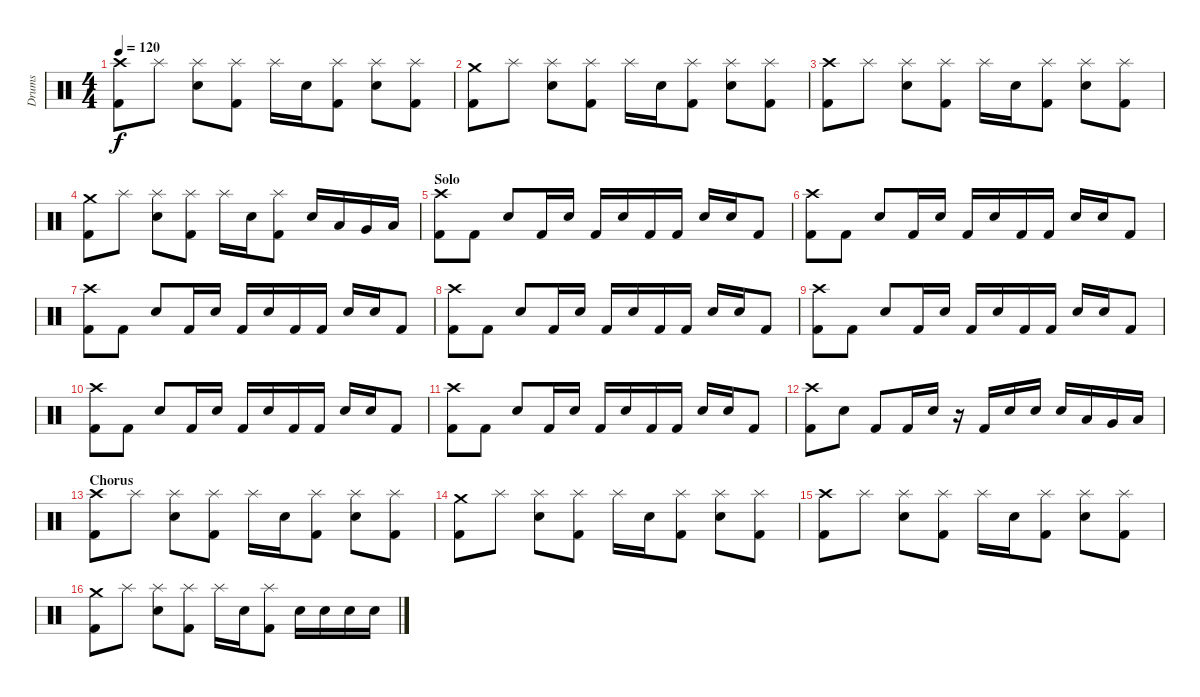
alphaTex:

\track ("Drums" "Drums") {instrument percussion}
\staff {score}
\articulation defaults
\ts (4 4)
\tempo 120
\clef neutral
\ks c
("Kick (hit) 2" "Crash high (hit)").8{dy f} "Splash (hit)".8 ("Electric Snare (hit)" "Splash (hit)").8 ("Kick (hit) 2" "Splash (hit)").8 "Splash (hit)".16 "Electric Snare (hit)".16 ("Kick (hit) 2" "Splash (hit)").8 ("Electric Snare (hit)" "Splash (hit)").8 ("Kick (hit) 2" "Splash (hit)").8 |
("Kick (hit) 2" "Crash medium (hit)").8 "Splash (hit)".8 ("Electric Snare (hit)" "Splash (hit)").8 ("Kick (hit) 2" "Splash (hit)").8 "Splash (hit)".16 "Electric Snare (hit)".16 ("Kick (hit) 2" "Splash (hit)").8 ("Electric Snare (hit)" "Splash (hit)").8 ("Kick (hit) 2" "Splash (hit)").8 |
("Kick (hit) 2" "Crash high (hit)").8 "Splash (hit)".8 ("Electric Snare (hit)" "Splash (hit)").8 ("Kick (hit) 2" "Splash (hit)").8 "Splash (hit)".16 "Electric Snare (hit)".16 ("Kick (hit) 2" "Splash (hit)").8 ("Electric Snare (hit)" "Splash (hit)").8 ("Kick (hit) 2" "Splash (hit)").8 |
("Kick (hit) 2" "Crash medium (hit)").8 "Splash (hit)".8 ("Electric Snare (hit)" "Splash (hit)").8 ("Kick (hit) 2" "Splash (hit)").8 "Splash (hit)".16 "Electric Snare (hit)".16 ("Kick (hit) 2" "Splash (hit)").8 "Electric Snare (hit)".16 "Low Tom (hit)".16 "Very Low Tom (hit)".16 "Low Floor Tom (hit)".16 |
\section ("" "Solo")
("Kick (hit) 2" "Crash high (hit)").8 "Kick (hit) 2".8 "Electric Snare (hit)".8 "Kick (hit) 2".16 "Electric Snare (hit)".16 "Kick (hit) 2".16 "Electric Snare (hit)".16 "Kick (hit) 2".16 "Kick (hit) 2".16 "Electric Snare (hit)".16 "Electric Snare (hit)".16 "Kick (hit) 2".8 |
("Kick (hit) 2" "Crash high (hit)").8 "Kick (hit) 2".8 "Electric Snare (hit)".8 "Kick (hit) 2".16 "Electric Snare (hit)".16 "Kick (hit) 2".16 "Electric Snare (hit)".16 "Kick (hit) 2".16 "Kick (hit) 2".16 "Electric Snare (hit)".16 "Electric Snare (hit)".16 "Kick (hit) 2".8 |
("Kick (hit) 2" "Crash high (hit)").8 "Kick (hit) 2".8 "Electric Snare (hit)".8 "Kick (hit) 2".16 "Electric Snare (hit)".16 "Kick (hit) 2".16 "Electric Snare (hit)".16 "Kick (hit) 2".16 "Kick (hit) 2".16 "Electric Snare (hit)".16 "Electric Snare (hit)".16 "Kick (hit) 2".8 |
("Kick (hit) 2" "Crash high (hit)").8 "Kick (hit) 2".8 "Electric Snare (hit)".8 "Kick (hit) 2".16 "Electric Snare (hit)".16 "Kick (hit) 2".16 "Electric Snare (hit)".16 "Kick (hit) 2".16 "Kick (hit) 2".16 "Electric Snare (hit)".16 "Electric Snare (hit)".16 "Kick (hit) 2".8 |
("Kick (hit) 2" "Crash high (hit)").8 "Kick (hit) 2".8 "Electric Snare (hit)".8 "Kick (hit) 2".16 "Electric Snare (hit)".16 "Kick (hit) 2".16 "Electric Snare (hit)".16 "Kick (hit) 2".16 "Kick (hit) 2".16 "Electric Snare (hit)".16 "Electric Snare (hit)".16 "Kick (hit) 2".8 |
("Kick (hit) 2" "Crash high (hit)").8 "Kick (hit) 2".8 "Electric Snare (hit)".8 "Kick (hit) 2".16 "Electric Snare (hit)".16 "Kick (hit) 2".16 "Electric Snare (hit)".16 "Kick (hit) 2".16 "Kick (hit) 2".16 "Electric Snare (hit)".16 "Electric Snare (hit)".16 "Kick (hit) 2".8 |
("Kick (hit) 2" "Crash high (hit)").8 "Kick (hit) 2".8 "Electric Snare (hit)".8 "Kick (hit) 2".16 "Electric Snare (hit)".16 "Kick (hit) 2".16 "Electric Snare (hit)".16 "Kick (hit) 2".16 "Kick (hit) 2".16 "Electric Snare (hit)".16 "Electric Snare (hit)".16 "Kick (hit) 2".8 |
("Kick (hit) 2" "Crash high (hit)").8 "Electric Snare (hit)".8 "Kick (hit) 2".8 "Kick (hit) 2".16 "Electric Snare (hit)".16 r.16 "Kick (hit) 2".16 "Electric Snare (hit)".16 "Electric Snare (hit)".16 "Electric Snare (hit)".16 "Low Tom (hit)".16 "Very Low Tom (hit)".16 "Low Floor Tom (hit)".16 |
\section ("" "Chorus")
("Kick (hit) 2" "Crash high (hit)").8 "Splash (hit)".8 ("Electric Snare (hit)" "Splash (hit)").8 ("Kick (hit) 2" "Splash (hit)").8 "Splash (hit)".16 "Electric Snare (hit)".16 ("Kick (hit) 2" "Splash (hit)").8 ("Electric Snare (hit)" "Splash (hit)").8 ("Kick (hit) 2" "Splash (hit)").8 |
("Kick (hit) 2" "Crash medium (hit)").8 "Splash (hit)".8 ("Electric Snare (hit)" "Splash (hit)").8 ("Kick (hit) 2" "Splash (hit)").8 "Splash (hit)".16 "Electric Snare (hit)".16 ("Kick (hit) 2" "Splash (hit)").8 ("Electric Snare (hit)" "Splash (hit)").8 ("Kick (hit) 2" "Splash (hit)").8 |
("Kick (hit) 2" "Crash high (hit)").8 "Splash (hit)".8 ("Electric Snare (hit)" "Splash (hit)").8 ("Kick (hit) 2" "Splash (hit)").8 "Splash (hit)".16 "Electric Snare (hit)".16 ("Kick (hit) 2" "Splash (hit)").8 ("Electric Snare (hit)" "Splash (hit)").8 ("Kick (hit) 2" "Splash (hit)").8 |
("Kick (hit) 2" "Crash medium (hit)").8 "Splash (hit)".8 ("Electric Snare (hit)" "Splash (hit)").8 ("Kick (hit) 2" "Splash (hit)").8 "Splash (hit)".16 "Electric Snare (hit)".16 ("Kick (hit) 2" "Splash (hit)").8 "Electric Snare (hit)".16 "Electric Snare (hit)".16 "Electric Snare (hit)".16 "Electric Snare (hit)".16
